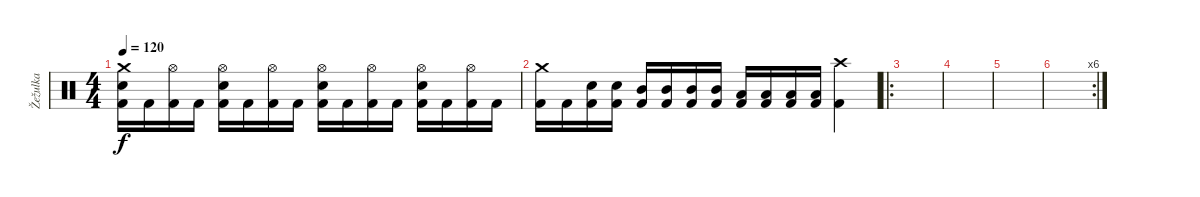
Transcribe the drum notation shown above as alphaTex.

\track ("Žežulka" "Žežulka") {instrument percussion}
\staff {score}
\articulation defaults
\ts (4 4)
\tempo 120
\clef neutral
\ks c
("Crash medium (hit)" "Snare (hit) 2" "Kick (hit) 2").16{dy f} "Kick (hit) 2".16 ("Hi-Hat (open)" "Kick (hit) 2").16 "Kick (hit) 2".16 ("Hi-Hat (open)" "Snare (hit) 2" "Kick (hit) 2").16 "Kick (hit) 2".16 ("Hi-Hat (open)" "Kick (hit) 2").16 "Kick (hit) 2".16 ("Hi-Hat (open)" "Snare (hit) 2" "Kick (hit) 2").16 "Kick (hit) 2".16 ("Hi-Hat (open)" "Kick (hit) 2").16 "Kick (hit) 2".16 ("Hi-Hat (open)" "Snare (hit) 2" "Kick (hit) 2").16 "Kick (hit) 2".16 ("Hi-Hat (open)" "Kick (hit) 2").16 "Kick (hit) 2".16 |
("Crash medium (hit)" "Kick (hit) 2").16 "Kick (hit) 2".16 ("Snare (hit) 2" "Kick (hit) 2").16 ("Snare (hit) 2" "Kick (hit) 2").16 ("Mid Tom (hit)" "Kick (hit) 2").16 ("Mid Tom (hit)" "Kick (hit) 2").16 ("Mid Tom (hit)" "Kick (hit) 2").16 ("Mid Tom (hit)" "Kick (hit) 2").16 ("Low Tom (hit)" "Kick (hit) 2").16 ("Low Tom (hit)" "Kick (hit) 2").16 ("Low Tom (hit)" "Kick (hit) 2").16 ("Low Tom (hit)" "Kick (hit) 2").16 ("Crash high (hit)" "Kick (hit) 2").4 |
\ro
|
|
|
\rc 6
